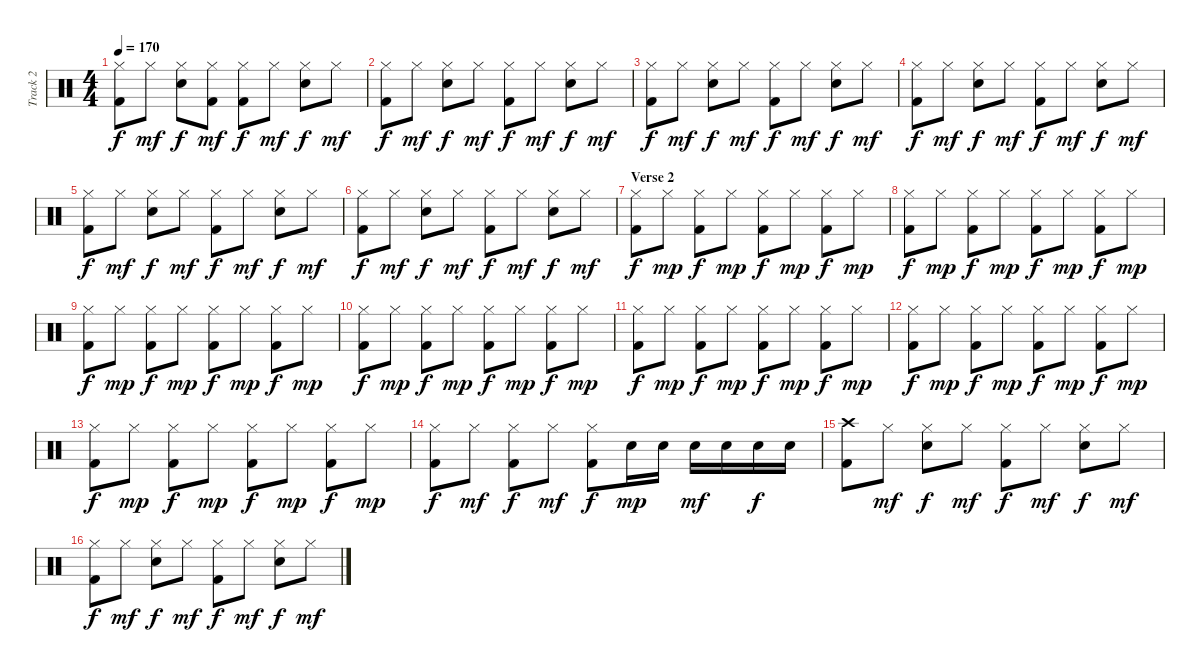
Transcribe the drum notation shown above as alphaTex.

\track ("Track 2" "Track 2") {instrument percussion}
\staff {score}
\articulation defaults
\ts (4 4)
\tempo 170
\clef neutral
\ks c
("Hi-Hat (closed)" "Kick (hit) 2").8{dy f} "Hi-Hat (closed)".8{dy mf} ("Hi-Hat (closed)" "Electric Snare (hit)").8{dy f} ("Hi-Hat (closed)" "Kick (hit) 2").8{dy mf} ("Hi-Hat (closed)" "Kick (hit) 2").8{dy f} "Hi-Hat (closed)".8{dy mf} ("Hi-Hat (closed)" "Electric Snare (hit)").8{dy f} "Hi-Hat (closed)".8{dy mf} |
("Hi-Hat (closed)" "Kick (hit) 2").8{dy f} "Hi-Hat (closed)".8{dy mf} ("Hi-Hat (closed)" "Electric Snare (hit)").8{dy f} "Hi-Hat (closed)".8{dy mf} ("Hi-Hat (closed)" "Kick (hit) 2").8{dy f} "Hi-Hat (closed)".8{dy mf} ("Hi-Hat (closed)" "Electric Snare (hit)").8{dy f} "Hi-Hat (closed)".8{dy mf} |
("Hi-Hat (closed)" "Kick (hit) 2").8{dy f} "Hi-Hat (closed)".8{dy mf} ("Hi-Hat (closed)" "Electric Snare (hit)").8{dy f} "Hi-Hat (closed)".8{dy mf} ("Hi-Hat (closed)" "Kick (hit) 2").8{dy f} "Hi-Hat (closed)".8{dy mf} ("Hi-Hat (closed)" "Electric Snare (hit)").8{dy f} "Hi-Hat (closed)".8{dy mf} |
("Hi-Hat (closed)" "Kick (hit) 2").8{dy f} "Hi-Hat (closed)".8{dy mf} ("Hi-Hat (closed)" "Electric Snare (hit)").8{dy f} "Hi-Hat (closed)".8{dy mf} ("Hi-Hat (closed)" "Kick (hit) 2").8{dy f} "Hi-Hat (closed)".8{dy mf} ("Hi-Hat (closed)" "Electric Snare (hit)").8{dy f} "Hi-Hat (closed)".8{dy mf} |
("Hi-Hat (closed)" "Kick (hit) 2").8{dy f} "Hi-Hat (closed)".8{dy mf} ("Hi-Hat (closed)" "Electric Snare (hit)").8{dy f} "Hi-Hat (closed)".8{dy mf} ("Hi-Hat (closed)" "Kick (hit) 2").8{dy f} "Hi-Hat (closed)".8{dy mf} ("Hi-Hat (closed)" "Electric Snare (hit)").8{dy f} "Hi-Hat (closed)".8{dy mf} |
("Hi-Hat (closed)" "Kick (hit) 2").8{dy f} "Hi-Hat (closed)".8{dy mf} ("Hi-Hat (closed)" "Electric Snare (hit)").8{dy f} "Hi-Hat (closed)".8{dy mf} ("Hi-Hat (closed)" "Kick (hit) 2").8{dy f} "Hi-Hat (closed)".8{dy mf} ("Hi-Hat (closed)" "Electric Snare (hit)").8{dy f} "Hi-Hat (closed)".8{dy mf} |
\section ("" "Verse 2")
("Hi-Hat (closed)" "Kick (hit) 2").8{dy f} "Hi-Hat (closed)".8{dy mp} ("Hi-Hat (closed)" "Kick (hit) 2").8{dy f} "Hi-Hat (closed)".8{dy mp} ("Hi-Hat (closed)" "Kick (hit) 2").8{dy f} "Hi-Hat (closed)".8{dy mp} ("Hi-Hat (closed)" "Kick (hit) 2").8{dy f} "Hi-Hat (closed)".8{dy mp} |
("Hi-Hat (closed)" "Kick (hit) 2").8{dy f} "Hi-Hat (closed)".8{dy mp} ("Hi-Hat (closed)" "Kick (hit) 2").8{dy f} "Hi-Hat (closed)".8{dy mp} ("Hi-Hat (closed)" "Kick (hit) 2").8{dy f} "Hi-Hat (closed)".8{dy mp} ("Hi-Hat (closed)" "Kick (hit) 2").8{dy f} "Hi-Hat (closed)".8{dy mp} |
("Hi-Hat (closed)" "Kick (hit) 2").8{dy f} "Hi-Hat (closed)".8{dy mp} ("Hi-Hat (closed)" "Kick (hit) 2").8{dy f} "Hi-Hat (closed)".8{dy mp} ("Hi-Hat (closed)" "Kick (hit) 2").8{dy f} "Hi-Hat (closed)".8{dy mp} ("Hi-Hat (closed)" "Kick (hit) 2").8{dy f} "Hi-Hat (closed)".8{dy mp} |
("Hi-Hat (closed)" "Kick (hit) 2").8{dy f} "Hi-Hat (closed)".8{dy mp} ("Hi-Hat (closed)" "Kick (hit) 2").8{dy f} "Hi-Hat (closed)".8{dy mp} ("Hi-Hat (closed)" "Kick (hit) 2").8{dy f} "Hi-Hat (closed)".8{dy mp} ("Hi-Hat (closed)" "Kick (hit) 2").8{dy f} "Hi-Hat (closed)".8{dy mp} |
("Hi-Hat (closed)" "Kick (hit) 2").8{dy f} "Hi-Hat (closed)".8{dy mp} ("Hi-Hat (closed)" "Kick (hit) 2").8{dy f} "Hi-Hat (closed)".8{dy mp} ("Hi-Hat (closed)" "Kick (hit) 2").8{dy f} "Hi-Hat (closed)".8{dy mp} ("Hi-Hat (closed)" "Kick (hit) 2").8{dy f} "Hi-Hat (closed)".8{dy mp} |
("Hi-Hat (closed)" "Kick (hit) 2").8{dy f} "Hi-Hat (closed)".8{dy mp} ("Hi-Hat (closed)" "Kick (hit) 2").8{dy f} "Hi-Hat (closed)".8{dy mp} ("Hi-Hat (closed)" "Kick (hit) 2").8{dy f} "Hi-Hat (closed)".8{dy mp} ("Hi-Hat (closed)" "Kick (hit) 2").8{dy f} "Hi-Hat (closed)".8{dy mp} |
("Hi-Hat (closed)" "Kick (hit) 2").8{dy f} "Hi-Hat (closed)".8{dy mp} ("Hi-Hat (closed)" "Kick (hit) 2").8{dy f} "Hi-Hat (closed)".8{dy mp} ("Hi-Hat (closed)" "Kick (hit) 2").8{dy f} "Hi-Hat (closed)".8{dy mp} ("Hi-Hat (closed)" "Kick (hit) 2").8{dy f} "Hi-Hat (closed)".8{dy mp} |
("Hi-Hat (closed)" "Kick (hit) 2").8{dy f} "Hi-Hat (closed)".8{dy mf} ("Hi-Hat (closed)" "Kick (hit) 2").8{dy f} "Hi-Hat (closed)".8{dy mf} ("Hi-Hat (closed)" "Kick (hit) 2").8{dy f} "Electric Snare (hit)".16{dy mp} "Electric Snare (hit)".16 "Electric Snare (hit)".16{dy mf} "Electric Snare (hit)".16 "Electric Snare (hit)".16{dy f} "Electric Snare (hit)".16 |
("Crash high (hit)" "Kick (hit) 2").8 "Hi-Hat (closed)".8{dy mf} ("Hi-Hat (closed)" "Electric Snare (hit)").8{dy f} "Hi-Hat (closed)".8{dy mf} ("Hi-Hat (closed)" "Kick (hit) 2").8{dy f} "Hi-Hat (closed)".8{dy mf} ("Hi-Hat (closed)" "Electric Snare (hit)").8{dy f} "Hi-Hat (closed)".8{dy mf} |
("Hi-Hat (closed)" "Kick (hit) 2").8{dy f} "Hi-Hat (closed)".8{dy mf} ("Hi-Hat (closed)" "Electric Snare (hit)").8{dy f} "Hi-Hat (closed)".8{dy mf} ("Hi-Hat (closed)" "Kick (hit) 2").8{dy f} "Hi-Hat (closed)".8{dy mf} ("Hi-Hat (closed)" "Electric Snare (hit)").8{dy f} "Hi-Hat (closed)".8{dy mf}
